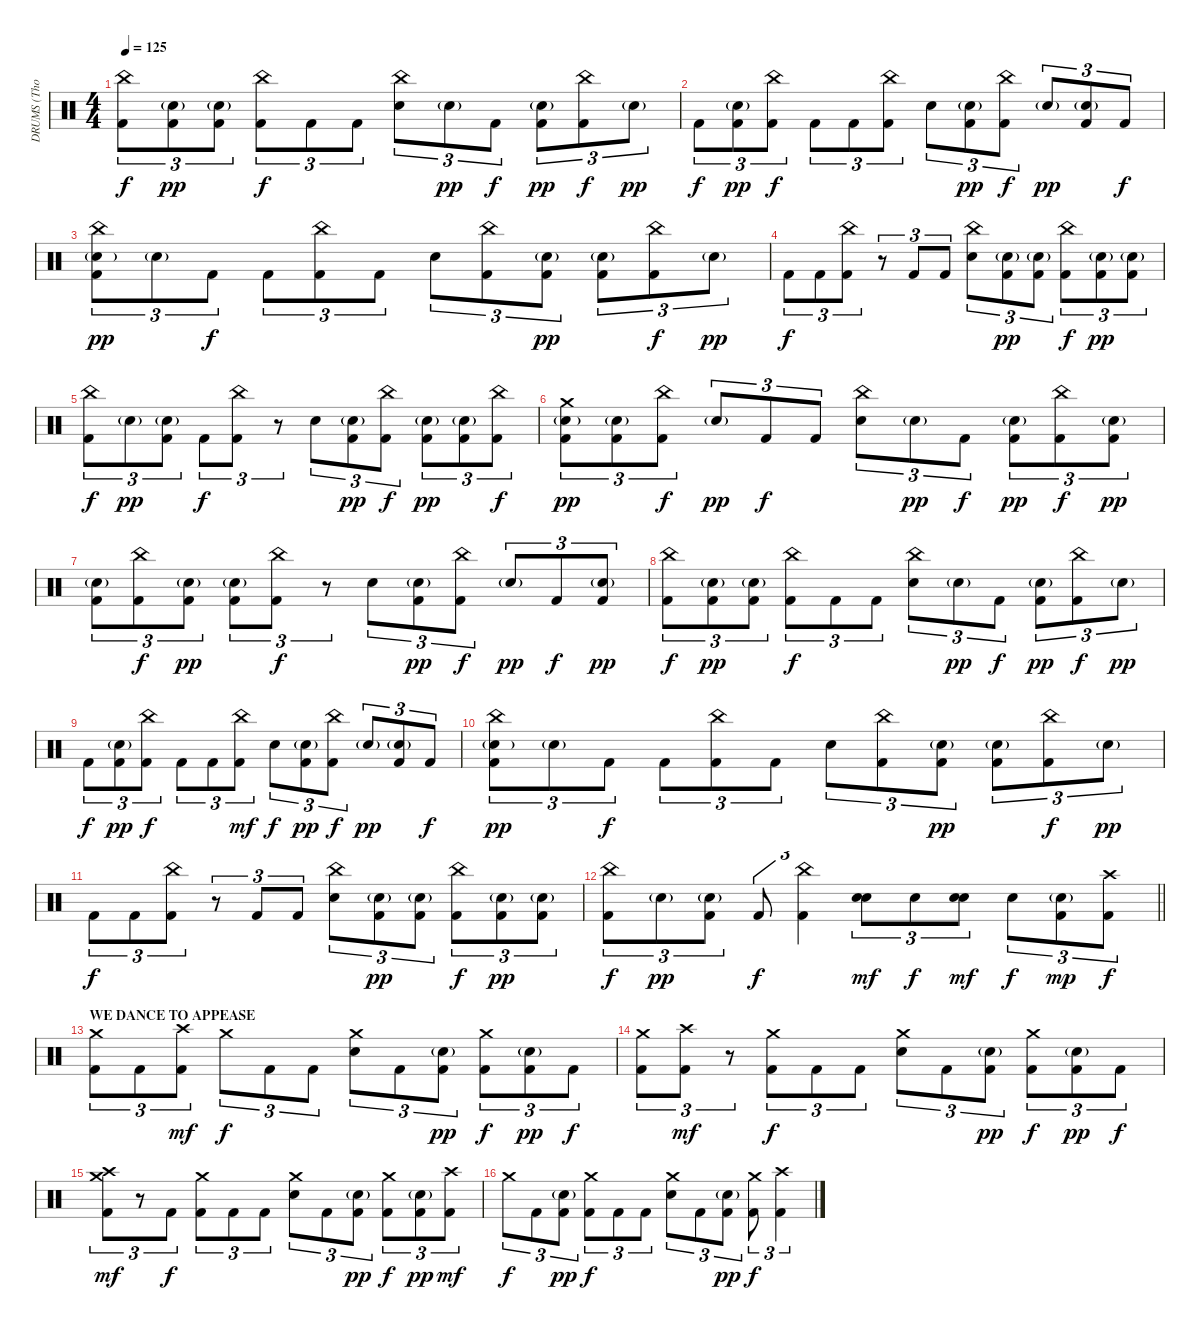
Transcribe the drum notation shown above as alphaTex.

\track ("DRUMS (Thomas Haake)" "DRUMS (Tho") {instrument percussion}
\staff {score}
\articulation defaults
\ts (4 4)
\tempo 125
\clef neutral
\ks c
("China (hit)" "Kick (hit) 2").8{tu (3 2) dy f} ("Electric Snare (hit)"{g} "Kick (hit) 2").8{tu (3 2) dy pp} ("Electric Snare (hit)"{g} "Kick (hit) 2").8{tu (3 2)} ("China (hit)" "Kick (hit) 2").8{tu (3 2) dy f} "Kick (hit) 2".8{tu (3 2)} "Kick (hit) 2".8{tu (3 2)} ("China (hit)" "Electric Snare (hit)").8{tu (3 2)} "Electric Snare (hit)"{g}.8{tu (3 2) dy pp} "Kick (hit) 2".8{tu (3 2) dy f} ("Electric Snare (hit)"{g} "Kick (hit) 2").8{tu (3 2) dy pp} ("China (hit)" "Kick (hit) 2").8{tu (3 2) dy f} "Electric Snare (hit)"{g}.8{tu (3 2) dy pp} |
"Kick (hit) 2".8{tu (3 2) dy f} ("Electric Snare (hit)"{g} "Kick (hit) 2").8{tu (3 2) dy pp} ("China (hit)" "Kick (hit) 2").8{tu (3 2) dy f} "Kick (hit) 2".8{tu (3 2)} "Kick (hit) 2".8{tu (3 2)} ("China (hit)" "Kick (hit) 2").8{tu (3 2)} "Electric Snare (hit)".8{tu (3 2)} ("Electric Snare (hit)"{g} "Kick (hit) 2").8{tu (3 2) dy pp} ("China (hit)" "Kick (hit) 2").8{tu (3 2) dy f} "Electric Snare (hit)"{g}.8{tu (3 2) dy pp} ("Electric Snare (hit)"{g} "Kick (hit) 2").8{tu (3 2)} "Kick (hit) 2".8{tu (3 2) dy f} |
("China (hit)" "Electric Snare (hit)"{g} "Kick (hit) 2").8{tu (3 2) dy pp} "Electric Snare (hit)"{g}.8{tu (3 2)} "Kick (hit) 2".8{tu (3 2) dy f} "Kick (hit) 2".8{tu (3 2)} ("China (hit)" "Kick (hit) 2").8{tu (3 2)} "Kick (hit) 2".8{tu (3 2)} "Electric Snare (hit)".8{tu (3 2)} ("China (hit)" "Kick (hit) 2").8{tu (3 2)} ("Electric Snare (hit)"{g} "Kick (hit) 2").8{tu (3 2) dy pp} ("Electric Snare (hit)"{g} "Kick (hit) 2").8{tu (3 2)} ("China (hit)" "Kick (hit) 2").8{tu (3 2) dy f} "Electric Snare (hit)"{g}.8{tu (3 2) dy pp} |
"Kick (hit) 2".8{tu (3 2) dy f} "Kick (hit) 2".8{tu (3 2)} ("China (hit)" "Kick (hit) 2").8{tu (3 2)} r.8{tu (3 2)} "Kick (hit) 2".8{tu (3 2)} "Kick (hit) 2".8{tu (3 2)} ("China (hit)" "Electric Snare (hit)").8{tu (3 2)} ("Electric Snare (hit)"{g} "Kick (hit) 2").8{tu (3 2) dy pp} ("Electric Snare (hit)"{g} "Kick (hit) 2").8{tu (3 2)} ("China (hit)" "Kick (hit) 2").8{tu (3 2) dy f} ("Electric Snare (hit)"{g} "Kick (hit) 2").8{tu (3 2) dy pp} ("Electric Snare (hit)"{g} "Kick (hit) 2").8{tu (3 2)} |
("China (hit)" "Kick (hit) 2").8{tu (3 2) dy f} "Electric Snare (hit)"{g}.8{tu (3 2) dy pp} ("Electric Snare (hit)"{g} "Kick (hit) 2").8{tu (3 2)} "Kick (hit) 2".8{tu (3 2) dy f} ("China (hit)" "Kick (hit) 2").8{tu (3 2)} r.8{tu (3 2)} "Electric Snare (hit)".8{tu (3 2)} ("Electric Snare (hit)"{g} "Kick (hit) 2").8{tu (3 2) dy pp} ("China (hit)" "Kick (hit) 2").8{tu (3 2) dy f} ("Electric Snare (hit)"{g} "Kick (hit) 2").8{tu (3 2) dy pp} ("Electric Snare (hit)"{g} "Kick (hit) 2").8{tu (3 2)} ("China (hit)" "Kick (hit) 2").8{tu (3 2) dy f} |
("Crash medium (hit)" "Electric Snare (hit)"{g} "Kick (hit) 2").8{tu (3 2) dy pp} ("Electric Snare (hit)"{g} "Kick (hit) 2").8{tu (3 2)} ("China (hit)" "Kick (hit) 2").8{tu (3 2) dy f} "Electric Snare (hit)"{g}.8{tu (3 2) dy pp} "Kick (hit) 2".8{tu (3 2) dy f} "Kick (hit) 2".8{tu (3 2)} ("China (hit)" "Electric Snare (hit)").8{tu (3 2)} "Electric Snare (hit)"{g}.8{tu (3 2) dy pp} "Kick (hit) 2".8{tu (3 2) dy f} ("Electric Snare (hit)"{g} "Kick (hit) 2").8{tu (3 2) dy pp} ("China (hit)" "Kick (hit) 2").8{tu (3 2) dy f} ("Electric Snare (hit)"{g} "Kick (hit) 2").8{tu (3 2) dy pp} |
("Electric Snare (hit)"{g} "Kick (hit) 2").8{tu (3 2)} ("China (hit)" "Kick (hit) 2").8{tu (3 2) dy f} ("Electric Snare (hit)"{g} "Kick (hit) 2").8{tu (3 2) dy pp} ("Electric Snare (hit)"{g} "Kick (hit) 2").8{tu (3 2)} ("China (hit)" "Kick (hit) 2").8{tu (3 2) dy f} r.8{tu (3 2)} "Electric Snare (hit)".8{tu (3 2)} ("Electric Snare (hit)"{g} "Kick (hit) 2").8{tu (3 2) dy pp} ("China (hit)" "Kick (hit) 2").8{tu (3 2) dy f} "Electric Snare (hit)"{g}.8{tu (3 2) dy pp} "Kick (hit) 2".8{tu (3 2) dy f} ("Electric Snare (hit)"{g} "Kick (hit) 2").8{tu (3 2) dy pp} |
("China (hit)" "Kick (hit) 2").8{tu (3 2) dy f} ("Electric Snare (hit)"{g} "Kick (hit) 2").8{tu (3 2) dy pp} ("Electric Snare (hit)"{g} "Kick (hit) 2").8{tu (3 2)} ("China (hit)" "Kick (hit) 2").8{tu (3 2) dy f} "Kick (hit) 2".8{tu (3 2)} "Kick (hit) 2".8{tu (3 2)} ("China (hit)" "Electric Snare (hit)").8{tu (3 2)} "Electric Snare (hit)"{g}.8{tu (3 2) dy pp} "Kick (hit) 2".8{tu (3 2) dy f} ("Electric Snare (hit)"{g} "Kick (hit) 2").8{tu (3 2) dy pp} ("China (hit)" "Kick (hit) 2").8{tu (3 2) dy f} "Electric Snare (hit)"{g}.8{tu (3 2) dy pp} |
"Kick (hit) 2".8{tu (3 2) dy f} ("Electric Snare (hit)"{g} "Kick (hit) 2").8{tu (3 2) dy pp} ("China (hit)" "Kick (hit) 2").8{tu (3 2) dy f} "Kick (hit) 2".8{tu (3 2)} "Kick (hit) 2".8{tu (3 2)} ("China (hit)" "Kick (hit) 2").8{tu (3 2) dy mf} "Electric Snare (hit)".8{tu (3 2) dy f} ("Electric Snare (hit)"{g} "Kick (hit) 2").8{tu (3 2) dy pp} ("China (hit)" "Kick (hit) 2").8{tu (3 2) dy f} "Electric Snare (hit)"{g}.8{tu (3 2) dy pp} ("Electric Snare (hit)"{g} "Kick (hit) 2").8{tu (3 2)} "Kick (hit) 2".8{tu (3 2) dy f} |
("China (hit)" "Electric Snare (hit)"{g} "Kick (hit) 2").8{tu (3 2) dy pp} "Electric Snare (hit)"{g}.8{tu (3 2)} "Kick (hit) 2".8{tu (3 2) dy f} "Kick (hit) 2".8{tu (3 2)} ("China (hit)" "Kick (hit) 2").8{tu (3 2)} "Kick (hit) 2".8{tu (3 2)} "Electric Snare (hit)".8{tu (3 2)} ("China (hit)" "Kick (hit) 2").8{tu (3 2)} ("Electric Snare (hit)"{g} "Kick (hit) 2").8{tu (3 2) dy pp} ("Electric Snare (hit)"{g} "Kick (hit) 2").8{tu (3 2)} ("China (hit)" "Kick (hit) 2").8{tu (3 2) dy f} "Electric Snare (hit)"{g}.8{tu (3 2) dy pp} |
"Kick (hit) 2".8{tu (3 2) dy f} "Kick (hit) 2".8{tu (3 2)} ("China (hit)" "Kick (hit) 2").8{tu (3 2)} r.8{tu (3 2)} "Kick (hit) 2".8{tu (3 2)} "Kick (hit) 2".8{tu (3 2)} ("China (hit)" "Electric Snare (hit)").8{tu (3 2)} ("Electric Snare (hit)"{g} "Kick (hit) 2").8{tu (3 2) dy pp} ("Electric Snare (hit)"{g} "Kick (hit) 2").8{tu (3 2)} ("China (hit)" "Kick (hit) 2").8{tu (3 2) dy f} ("Electric Snare (hit)"{g} "Kick (hit) 2").8{tu (3 2) dy pp} ("Electric Snare (hit)"{g} "Kick (hit) 2").8{tu (3 2)} |
\barLineRight lightlight
("China (hit)" "Kick (hit) 2").8{tu (3 2) dy f} "Electric Snare (hit)"{g}.8{tu (3 2) dy pp} ("Electric Snare (hit)"{g} "Kick (hit) 2").8{tu (3 2)} "Kick (hit) 2".8{tu (3 2) dy f} ("China (hit)" "Kick (hit) 2").4{tu (3 2)} ("Electric Snare (hit)" "Electric Snare (hit)").8{tu (3 2) bd 120 dy mf} "Electric Snare (hit)".8{tu (3 2) dy f} ("Electric Snare (hit)" "Electric Snare (hit)").8{tu (3 2) bd 30 dy mf} "Electric Snare (hit)".8{tu (3 2) dy f} ("Electric Snare (hit)"{g} "Kick (hit) 2").8{tu (3 2) dy mp} ("Crash high (hit)" "Kick (hit) 2").8{tu (3 2) dy f} |
\section ("" "WE DANCE TO APPEASE")
("Crash medium (hit)" "Kick (hit) 2").8{tu (3 2)} "Kick (hit) 2".8{tu (3 2)} ("Crash high (hit)" "Kick (hit) 2").8{tu (3 2) dy mf} "Crash medium (hit)".8{tu (3 2) dy f} "Kick (hit) 2".8{tu (3 2)} "Kick (hit) 2".8{tu (3 2)} ("Crash medium (hit)" "Electric Snare (hit)").8{tu (3 2)} "Kick (hit) 2".8{tu (3 2)} ("Electric Snare (hit)"{g} "Kick (hit) 2").8{tu (3 2) dy pp} ("Crash medium (hit)" "Kick (hit) 2").8{tu (3 2) dy f} ("Electric Snare (hit)"{g} "Kick (hit) 2").8{tu (3 2) dy pp} "Kick (hit) 2".8{tu (3 2) dy f} |
("Crash medium (hit)" "Kick (hit) 2").8{tu (3 2)} ("Crash high (hit)" "Kick (hit) 2").8{tu (3 2) dy mf} r.8{tu (3 2)} ("Crash medium (hit)" "Kick (hit) 2").8{tu (3 2) dy f} "Kick (hit) 2".8{tu (3 2)} "Kick (hit) 2".8{tu (3 2)} ("Crash medium (hit)" "Electric Snare (hit)").8{tu (3 2)} "Kick (hit) 2".8{tu (3 2)} ("Electric Snare (hit)"{g} "Kick (hit) 2").8{tu (3 2) dy pp} ("Crash medium (hit)" "Kick (hit) 2").8{tu (3 2) dy f} ("Electric Snare (hit)"{g} "Kick (hit) 2").8{tu (3 2) dy pp} "Kick (hit) 2".8{tu (3 2) dy f} |
("Crash medium (hit)" "Crash high (hit)" "Kick (hit) 2").8{tu (3 2) dy mf} r.8{tu (3 2)} "Kick (hit) 2".8{tu (3 2) dy f} ("Crash medium (hit)" "Kick (hit) 2").8{tu (3 2)} "Kick (hit) 2".8{tu (3 2)} "Kick (hit) 2".8{tu (3 2)} ("Crash medium (hit)" "Electric Snare (hit)").8{tu (3 2)} "Kick (hit) 2".8{tu (3 2)} ("Electric Snare (hit)"{g} "Kick (hit) 2").8{tu (3 2) dy pp} ("Crash medium (hit)" "Kick (hit) 2").8{tu (3 2) dy f} ("Electric Snare (hit)"{g} "Kick (hit) 2").8{tu (3 2) dy pp} ("Crash high (hit)" "Kick (hit) 2").8{tu (3 2) dy mf} |
"Crash medium (hit)".8{tu (3 2) dy f} "Kick (hit) 2".8{tu (3 2)} ("Electric Snare (hit)"{g} "Kick (hit) 2").8{tu (3 2) dy pp} ("Crash medium (hit)" "Kick (hit) 2").8{tu (3 2) dy f} "Kick (hit) 2".8{tu (3 2)} "Kick (hit) 2".8{tu (3 2)} ("Crash medium (hit)" "Electric Snare (hit)").8{tu (3 2)} "Kick (hit) 2".8{tu (3 2)} ("Electric Snare (hit)"{g} "Kick (hit) 2").8{tu (3 2) dy pp} ("Crash medium (hit)" "Kick (hit) 2").8{tu (3 2) dy f} ("Crash high (hit)" "Kick (hit) 2").4{tu (3 2)}
